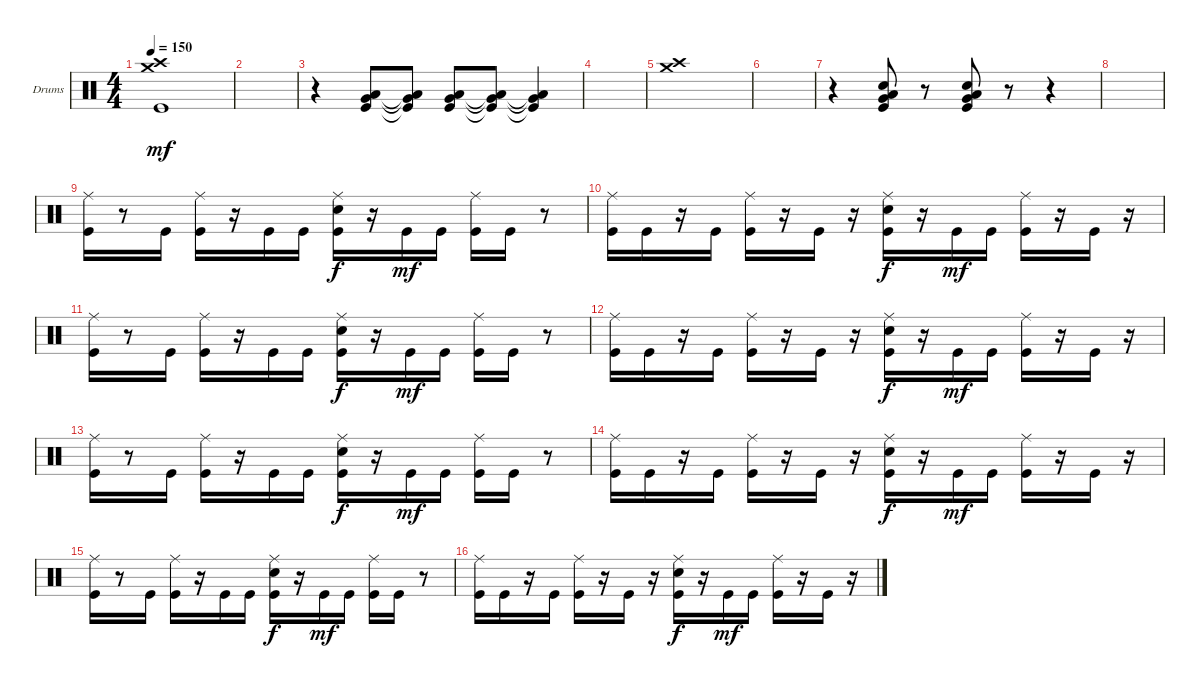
\defaultSystemsLayout 4
\bracketExtendMode groupsimilarinstruments
\firstSystemTrackNameOrientation horizontal
\otherSystemsTrackNameOrientation horizontal
\track ("Drumkit" "Drums") {instrument percussion}
\staff {score}
\articulation defaults
\ts (4 4)
\tempo 150
\clef neutral
\scale
0.474178
\ks c
("Crash medium (hit)" "Crash high (hit)" "Kick (hit)").1{dy mf} |
\scale
0.262911 |
\scale
0.262911 r.4 ("Low Tom (hit)" "Very Low Tom (hit)" "Kick (hit)").8 ("Low Tom (hit)"{t} "Very Low Tom (hit)"{t} "Kick (hit)"{t}).8 ("Low Tom (hit)" "Very Low Tom (hit)" "Kick (hit)").8 ("Low Tom (hit)"{t} "Very Low Tom (hit)"{t} "Kick (hit)"{t}).8 ("Low Tom (hit)"{t} "Very Low Tom (hit)"{t} "Kick (hit)"{t}).4 |
\scale
0.333333 |
\scale
0.333333 ("Crash medium (hit)" "Crash high (hit)").1 |
\scale
0.333333 |
\scale
0.333333 r.4 ("Snare (hit) 2" "Kick (hit)" "Very Low Tom (hit)" "Low Tom (hit)").8 r.8 ("Kick (hit)" "Snare (hit) 2" "Very Low Tom (hit)" "Low Tom (hit)").8 r.8 r.4 |
\scale
0.333333 |
\scale
0.333333 ("Kick (hit)" "Ride (middle)").16 r.8 "Kick (hit)".16 ("Kick (hit)" "Ride (middle)").16 r.16 "Kick (hit)".16 "Kick (hit)".16 ("Kick (hit)" "Ride (middle)" "Snare (hit) 2").16{dy f} r.16 "Kick (hit)".16{dy mf} "Kick (hit)".16 ("Kick (hit)" "Ride (middle)").16 "Kick (hit)".16 r.8 |
\scale
0.333333 ("Kick (hit)" "Ride (middle)").16 "Kick (hit)".16 r.16 "Kick (hit)".16 ("Kick (hit)" "Ride (middle)").16 r.16 "Kick (hit)".16 r.16 ("Kick (hit)" "Ride (middle)" "Snare (hit) 2").16{dy f} r.16 "Kick (hit)".16{dy mf} "Kick (hit)".16 ("Kick (hit)" "Ride (middle)").16 r.16 "Kick (hit)".16 r.16 |
\scale
0.333333 ("Kick (hit)" "Ride (middle)").16 r.8 "Kick (hit)".16 ("Kick (hit)" "Ride (middle)").16 r.16 "Kick (hit)".16 "Kick (hit)".16 ("Kick (hit)" "Ride (middle)" "Snare (hit) 2").16{dy f} r.16 "Kick (hit)".16{dy mf} "Kick (hit)".16 ("Kick (hit)" "Ride (middle)").16 "Kick (hit)".16 r.8 |
\scale
0.333333 ("Kick (hit)" "Ride (middle)").16 "Kick (hit)".16 r.16 "Kick (hit)".16 ("Kick (hit)" "Ride (middle)").16 r.16 "Kick (hit)".16 r.16 ("Kick (hit)" "Ride (middle)" "Snare (hit) 2").16{dy f} r.16 "Kick (hit)".16{dy mf} "Kick (hit)".16 ("Kick (hit)" "Ride (middle)").16 r.16 "Kick (hit)".16 r.16 |
\scale
0.333333 ("Kick (hit)" "Ride (middle)").16 r.8 "Kick (hit)".16 ("Kick (hit)" "Ride (middle)").16 r.16 "Kick (hit)".16 "Kick (hit)".16 ("Kick (hit)" "Ride (middle)" "Snare (hit) 2").16{dy f} r.16 "Kick (hit)".16{dy mf} "Kick (hit)".16 ("Kick (hit)" "Ride (middle)").16 "Kick (hit)".16 r.8 |
\scale
0.333333 ("Kick (hit)" "Ride (middle)").16 "Kick (hit)".16 r.16 "Kick (hit)".16 ("Kick (hit)" "Ride (middle)").16 r.16 "Kick (hit)".16 r.16 ("Kick (hit)" "Ride (middle)" "Snare (hit) 2").16{dy f} r.16 "Kick (hit)".16{dy mf} "Kick (hit)".16 ("Kick (hit)" "Ride (middle)").16 r.16 "Kick (hit)".16 r.16 |
\scale
0.333333 ("Kick (hit)" "Ride (middle)").16 r.8 "Kick (hit)".16 ("Kick (hit)" "Ride (middle)").16 r.16 "Kick (hit)".16 "Kick (hit)".16 ("Kick (hit)" "Ride (middle)" "Snare (hit) 2").16{dy f} r.16 "Kick (hit)".16{dy mf} "Kick (hit)".16 ("Kick (hit)" "Ride (middle)").16 "Kick (hit)".16 r.8 |
("Kick (hit)" "Ride (middle)").16 "Kick (hit)".16 r.16 "Kick (hit)".16 ("Kick (hit)" "Ride (middle)").16 r.16 "Kick (hit)".16 r.16 ("Kick (hit)" "Ride (middle)" "Snare (hit) 2").16{dy f} r.16 "Kick (hit)".16{dy mf} "Kick (hit)".16 ("Kick (hit)" "Ride (middle)").16 r.16 "Kick (hit)".16 r.16
